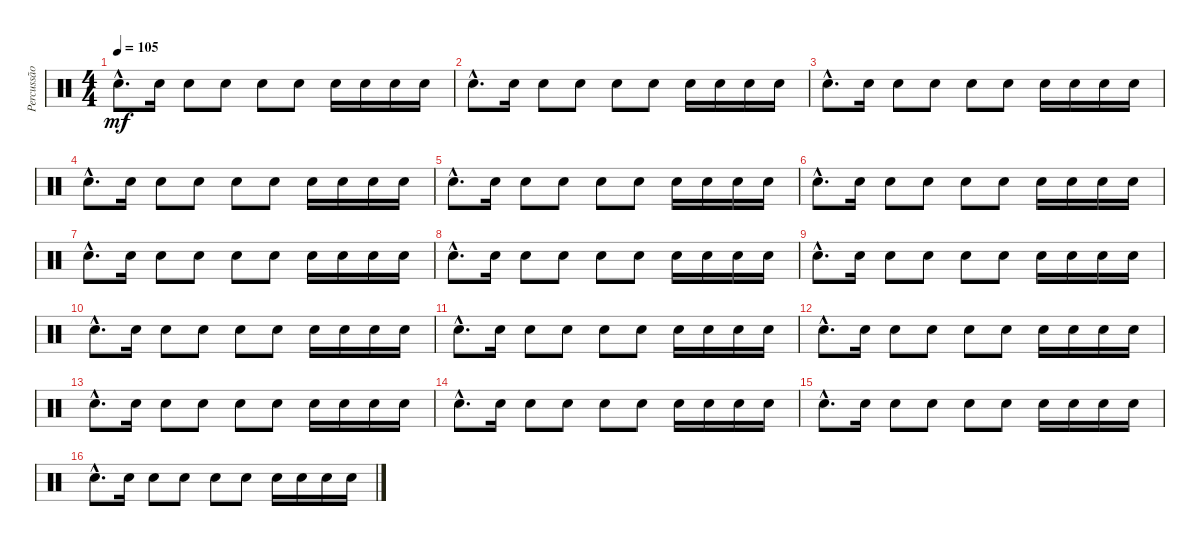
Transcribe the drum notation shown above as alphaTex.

\track ("Percussão" "Percussão") {instrument percussion}
\staff {score}
\articulation defaults
\ts (4 4)
\tempo 105
\clef neutral
\ks c "Snare (hit) 2"{hac}.8{d dy mf} "Snare (hit) 2".16 "Snare (hit) 2".8 "Snare (hit) 2".8 "Snare (hit) 2".8 "Snare (hit) 2".8 "Snare (hit) 2".16 "Snare (hit) 2".16 "Snare (hit) 2".16 "Snare (hit) 2".16
|
"Snare (hit) 2"{hac}.8{d} "Snare (hit) 2".16 "Snare (hit) 2".8 "Snare (hit) 2".8 "Snare (hit) 2".8 "Snare (hit) 2".8 "Snare (hit) 2".16 "Snare (hit) 2".16 "Snare (hit) 2".16 "Snare (hit) 2".16 |
"Snare (hit) 2"{hac}.8{d} "Snare (hit) 2".16 "Snare (hit) 2".8 "Snare (hit) 2".8 "Snare (hit) 2".8 "Snare (hit) 2".8 "Snare (hit) 2".16 "Snare (hit) 2".16 "Snare (hit) 2".16 "Snare (hit) 2".16 |
"Snare (hit) 2"{hac}.8{d} "Snare (hit) 2".16 "Snare (hit) 2".8 "Snare (hit) 2".8 "Snare (hit) 2".8 "Snare (hit) 2".8 "Snare (hit) 2".16 "Snare (hit) 2".16 "Snare (hit) 2".16 "Snare (hit) 2".16 |
"Snare (hit) 2"{hac}.8{d} "Snare (hit) 2".16 "Snare (hit) 2".8 "Snare (hit) 2".8 "Snare (hit) 2".8 "Snare (hit) 2".8 "Snare (hit) 2".16 "Snare (hit) 2".16 "Snare (hit) 2".16 "Snare (hit) 2".16 |
"Snare (hit) 2"{hac}.8{d} "Snare (hit) 2".16 "Snare (hit) 2".8 "Snare (hit) 2".8 "Snare (hit) 2".8 "Snare (hit) 2".8 "Snare (hit) 2".16 "Snare (hit) 2".16 "Snare (hit) 2".16 "Snare (hit) 2".16 |
"Snare (hit) 2"{hac}.8{d} "Snare (hit) 2".16 "Snare (hit) 2".8 "Snare (hit) 2".8 "Snare (hit) 2".8 "Snare (hit) 2".8 "Snare (hit) 2".16 "Snare (hit) 2".16 "Snare (hit) 2".16 "Snare (hit) 2".16 |
"Snare (hit) 2"{hac}.8{d} "Snare (hit) 2".16 "Snare (hit) 2".8 "Snare (hit) 2".8 "Snare (hit) 2".8 "Snare (hit) 2".8 "Snare (hit) 2".16 "Snare (hit) 2".16 "Snare (hit) 2".16 "Snare (hit) 2".16 |
"Snare (hit) 2"{hac}.8{d} "Snare (hit) 2".16 "Snare (hit) 2".8 "Snare (hit) 2".8 "Snare (hit) 2".8 "Snare (hit) 2".8 "Snare (hit) 2".16 "Snare (hit) 2".16 "Snare (hit) 2".16 "Snare (hit) 2".16 |
"Snare (hit) 2"{hac}.8{d} "Snare (hit) 2".16 "Snare (hit) 2".8 "Snare (hit) 2".8 "Snare (hit) 2".8 "Snare (hit) 2".8 "Snare (hit) 2".16 "Snare (hit) 2".16 "Snare (hit) 2".16 "Snare (hit) 2".16 |
"Snare (hit) 2"{hac}.8{d} "Snare (hit) 2".16 "Snare (hit) 2".8 "Snare (hit) 2".8 "Snare (hit) 2".8 "Snare (hit) 2".8 "Snare (hit) 2".16 "Snare (hit) 2".16 "Snare (hit) 2".16 "Snare (hit) 2".16 |
"Snare (hit) 2"{hac}.8{d} "Snare (hit) 2".16 "Snare (hit) 2".8 "Snare (hit) 2".8 "Snare (hit) 2".8 "Snare (hit) 2".8 "Snare (hit) 2".16 "Snare (hit) 2".16 "Snare (hit) 2".16 "Snare (hit) 2".16 |
"Snare (hit) 2"{hac}.8{d} "Snare (hit) 2".16 "Snare (hit) 2".8 "Snare (hit) 2".8 "Snare (hit) 2".8 "Snare (hit) 2".8 "Snare (hit) 2".16 "Snare (hit) 2".16 "Snare (hit) 2".16 "Snare (hit) 2".16 |
"Snare (hit) 2"{hac}.8{d} "Snare (hit) 2".16 "Snare (hit) 2".8 "Snare (hit) 2".8 "Snare (hit) 2".8 "Snare (hit) 2".8 "Snare (hit) 2".16 "Snare (hit) 2".16 "Snare (hit) 2".16 "Snare (hit) 2".16 |
"Snare (hit) 2"{hac}.8{d} "Snare (hit) 2".16 "Snare (hit) 2".8 "Snare (hit) 2".8 "Snare (hit) 2".8 "Snare (hit) 2".8 "Snare (hit) 2".16 "Snare (hit) 2".16 "Snare (hit) 2".16 "Snare (hit) 2".16 |
"Snare (hit) 2"{hac}.8{d} "Snare (hit) 2".16 "Snare (hit) 2".8 "Snare (hit) 2".8 "Snare (hit) 2".8 "Snare (hit) 2".8 "Snare (hit) 2".16 "Snare (hit) 2".16 "Snare (hit) 2".16 "Snare (hit) 2".16
